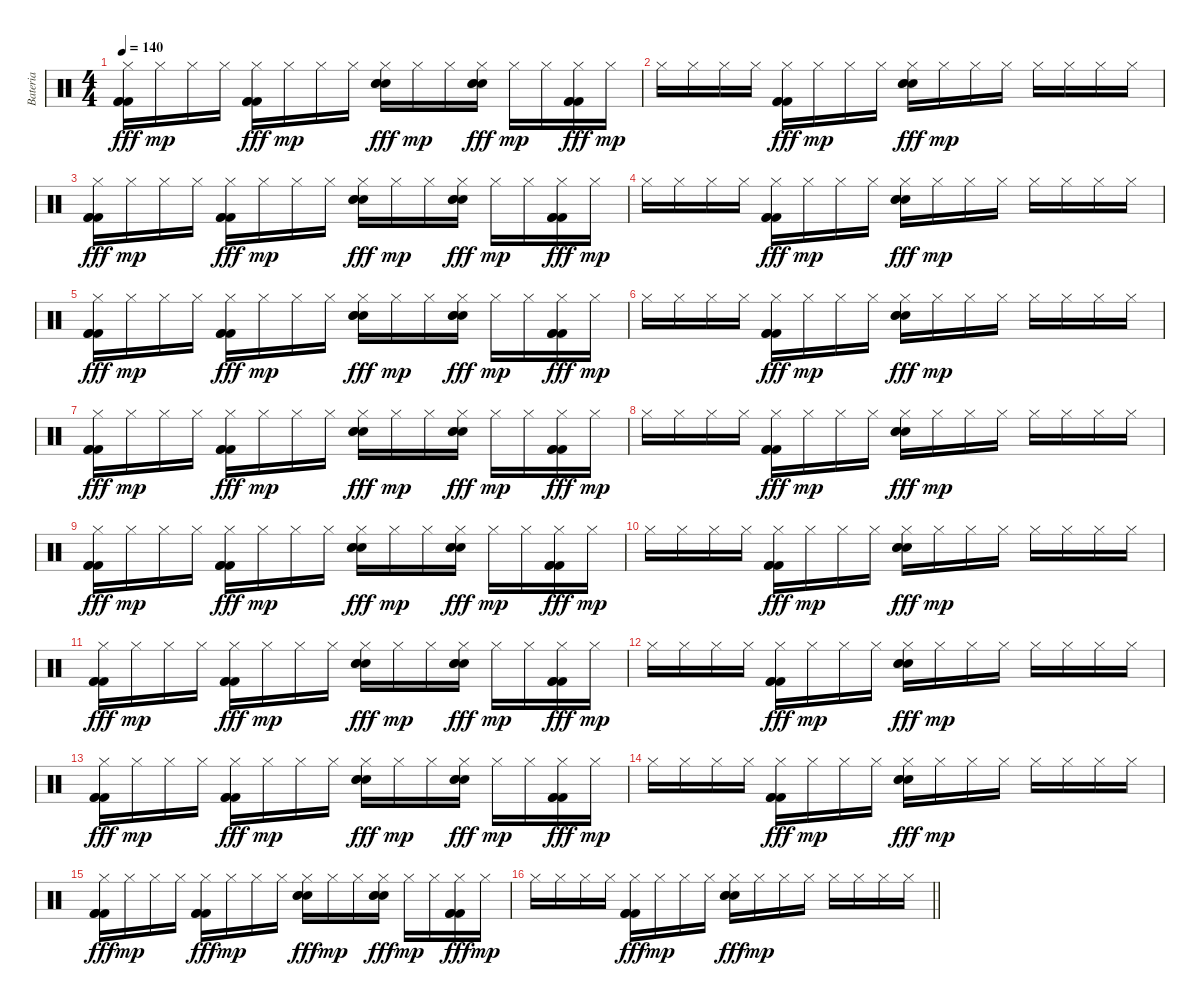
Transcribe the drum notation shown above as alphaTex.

\track ("Bateria" "Bateria") {instrument percussion}
\staff {score}
\articulation defaults
\ts (4 4)
\tempo 140
\clef neutral
\ks c
("Hi-Hat (closed)" "Kick (hit) 2" "Kick (hit) 2" "Kick (hit) 2").16{dy fff} "Hi-Hat (closed)".16{dy mp} "Hi-Hat (closed)".16 "Hi-Hat (closed)".16 ("Hi-Hat (closed)" "Kick (hit) 2" "Kick (hit) 2" "Kick (hit) 2").16{dy fff} "Hi-Hat (closed)".16{dy mp} "Hi-Hat (closed)".16 "Hi-Hat (closed)".16 ("Hi-Hat (closed)" "Snare (hit) 2" "Snare (hit) 2" "Snare (hit) 2").16{dy fff} "Hi-Hat (closed)".16{dy mp} "Hi-Hat (closed)".16 ("Hi-Hat (closed)" "Snare (hit) 2" "Snare (hit) 2" "Snare (hit) 2").16{dy fff} "Hi-Hat (closed)".16{dy mp} "Hi-Hat (closed)".16 ("Hi-Hat (closed)" "Kick (hit) 2" "Kick (hit) 2" "Kick (hit) 2").16{dy fff} "Hi-Hat (closed)".16{dy mp} |
"Hi-Hat (closed)".16 "Hi-Hat (closed)".16 "Hi-Hat (closed)".16 "Hi-Hat (closed)".16 ("Hi-Hat (closed)" "Kick (hit) 2" "Kick (hit) 2" "Kick (hit) 2").16{dy fff} "Hi-Hat (closed)".16{dy mp} "Hi-Hat (closed)".16 "Hi-Hat (closed)".16 ("Hi-Hat (closed)" "Snare (hit) 2" "Snare (hit) 2" "Snare (hit) 2").16{dy fff} "Hi-Hat (closed)".16{dy mp} "Hi-Hat (closed)".16 "Hi-Hat (closed)".16 "Hi-Hat (closed)".16 "Hi-Hat (closed)".16 "Hi-Hat (closed)".16 "Hi-Hat (closed)".16 |
("Hi-Hat (closed)" "Kick (hit) 2" "Kick (hit) 2" "Kick (hit) 2").16{dy fff} "Hi-Hat (closed)".16{dy mp} "Hi-Hat (closed)".16 "Hi-Hat (closed)".16 ("Hi-Hat (closed)" "Kick (hit) 2" "Kick (hit) 2" "Kick (hit) 2").16{dy fff} "Hi-Hat (closed)".16{dy mp} "Hi-Hat (closed)".16 "Hi-Hat (closed)".16 ("Hi-Hat (closed)" "Snare (hit) 2" "Snare (hit) 2" "Snare (hit) 2").16{dy fff} "Hi-Hat (closed)".16{dy mp} "Hi-Hat (closed)".16 ("Hi-Hat (closed)" "Snare (hit) 2" "Snare (hit) 2" "Snare (hit) 2").16{dy fff} "Hi-Hat (closed)".16{dy mp} "Hi-Hat (closed)".16 ("Hi-Hat (closed)" "Kick (hit) 2" "Kick (hit) 2" "Kick (hit) 2").16{dy fff} "Hi-Hat (closed)".16{dy mp} |
"Hi-Hat (closed)".16 "Hi-Hat (closed)".16 "Hi-Hat (closed)".16 "Hi-Hat (closed)".16 ("Hi-Hat (closed)" "Kick (hit) 2" "Kick (hit) 2" "Kick (hit) 2").16{dy fff} "Hi-Hat (closed)".16{dy mp} "Hi-Hat (closed)".16 "Hi-Hat (closed)".16 ("Hi-Hat (closed)" "Snare (hit) 2" "Snare (hit) 2" "Snare (hit) 2").16{dy fff} "Hi-Hat (closed)".16{dy mp} "Hi-Hat (closed)".16 "Hi-Hat (closed)".16 "Hi-Hat (closed)".16 "Hi-Hat (closed)".16 "Hi-Hat (closed)".16 "Hi-Hat (closed)".16 |
("Hi-Hat (closed)" "Kick (hit) 2" "Kick (hit) 2" "Kick (hit) 2").16{dy fff} "Hi-Hat (closed)".16{dy mp} "Hi-Hat (closed)".16 "Hi-Hat (closed)".16 ("Hi-Hat (closed)" "Kick (hit) 2" "Kick (hit) 2" "Kick (hit) 2").16{dy fff} "Hi-Hat (closed)".16{dy mp} "Hi-Hat (closed)".16 "Hi-Hat (closed)".16 ("Hi-Hat (closed)" "Snare (hit) 2" "Snare (hit) 2" "Snare (hit) 2").16{dy fff} "Hi-Hat (closed)".16{dy mp} "Hi-Hat (closed)".16 ("Hi-Hat (closed)" "Snare (hit) 2" "Snare (hit) 2" "Snare (hit) 2").16{dy fff} "Hi-Hat (closed)".16{dy mp} "Hi-Hat (closed)".16 ("Hi-Hat (closed)" "Kick (hit) 2" "Kick (hit) 2" "Kick (hit) 2").16{dy fff} "Hi-Hat (closed)".16{dy mp} |
"Hi-Hat (closed)".16 "Hi-Hat (closed)".16 "Hi-Hat (closed)".16 "Hi-Hat (closed)".16 ("Hi-Hat (closed)" "Kick (hit) 2" "Kick (hit) 2" "Kick (hit) 2").16{dy fff} "Hi-Hat (closed)".16{dy mp} "Hi-Hat (closed)".16 "Hi-Hat (closed)".16 ("Hi-Hat (closed)" "Snare (hit) 2" "Snare (hit) 2" "Snare (hit) 2").16{dy fff} "Hi-Hat (closed)".16{dy mp} "Hi-Hat (closed)".16 "Hi-Hat (closed)".16 "Hi-Hat (closed)".16 "Hi-Hat (closed)".16 "Hi-Hat (closed)".16 "Hi-Hat (closed)".16 |
("Hi-Hat (closed)" "Kick (hit) 2" "Kick (hit) 2" "Kick (hit) 2").16{dy fff} "Hi-Hat (closed)".16{dy mp} "Hi-Hat (closed)".16 "Hi-Hat (closed)".16 ("Hi-Hat (closed)" "Kick (hit) 2" "Kick (hit) 2" "Kick (hit) 2").16{dy fff} "Hi-Hat (closed)".16{dy mp} "Hi-Hat (closed)".16 "Hi-Hat (closed)".16 ("Hi-Hat (closed)" "Snare (hit) 2" "Snare (hit) 2" "Snare (hit) 2").16{dy fff} "Hi-Hat (closed)".16{dy mp} "Hi-Hat (closed)".16 ("Hi-Hat (closed)" "Snare (hit) 2" "Snare (hit) 2" "Snare (hit) 2").16{dy fff} "Hi-Hat (closed)".16{dy mp} "Hi-Hat (closed)".16 ("Hi-Hat (closed)" "Kick (hit) 2" "Kick (hit) 2" "Kick (hit) 2").16{dy fff} "Hi-Hat (closed)".16{dy mp} |
"Hi-Hat (closed)".16 "Hi-Hat (closed)".16 "Hi-Hat (closed)".16 "Hi-Hat (closed)".16 ("Hi-Hat (closed)" "Kick (hit) 2" "Kick (hit) 2" "Kick (hit) 2").16{dy fff} "Hi-Hat (closed)".16{dy mp} "Hi-Hat (closed)".16 "Hi-Hat (closed)".16 ("Hi-Hat (closed)" "Snare (hit) 2" "Snare (hit) 2" "Snare (hit) 2").16{dy fff} "Hi-Hat (closed)".16{dy mp} "Hi-Hat (closed)".16 "Hi-Hat (closed)".16 "Hi-Hat (closed)".16 "Hi-Hat (closed)".16 "Hi-Hat (closed)".16 "Hi-Hat (closed)".16 |
("Hi-Hat (closed)" "Kick (hit) 2" "Kick (hit) 2" "Kick (hit) 2").16{dy fff} "Hi-Hat (closed)".16{dy mp} "Hi-Hat (closed)".16 "Hi-Hat (closed)".16 ("Hi-Hat (closed)" "Kick (hit) 2" "Kick (hit) 2" "Kick (hit) 2").16{dy fff} "Hi-Hat (closed)".16{dy mp} "Hi-Hat (closed)".16 "Hi-Hat (closed)".16 ("Hi-Hat (closed)" "Snare (hit) 2" "Snare (hit) 2" "Snare (hit) 2").16{dy fff} "Hi-Hat (closed)".16{dy mp} "Hi-Hat (closed)".16 ("Hi-Hat (closed)" "Snare (hit) 2" "Snare (hit) 2" "Snare (hit) 2").16{dy fff} "Hi-Hat (closed)".16{dy mp} "Hi-Hat (closed)".16 ("Hi-Hat (closed)" "Kick (hit) 2" "Kick (hit) 2" "Kick (hit) 2").16{dy fff} "Hi-Hat (closed)".16{dy mp} |
"Hi-Hat (closed)".16 "Hi-Hat (closed)".16 "Hi-Hat (closed)".16 "Hi-Hat (closed)".16 ("Hi-Hat (closed)" "Kick (hit) 2" "Kick (hit) 2" "Kick (hit) 2").16{dy fff} "Hi-Hat (closed)".16{dy mp} "Hi-Hat (closed)".16 "Hi-Hat (closed)".16 ("Hi-Hat (closed)" "Snare (hit) 2" "Snare (hit) 2" "Snare (hit) 2").16{dy fff} "Hi-Hat (closed)".16{dy mp} "Hi-Hat (closed)".16 "Hi-Hat (closed)".16 "Hi-Hat (closed)".16 "Hi-Hat (closed)".16 "Hi-Hat (closed)".16 "Hi-Hat (closed)".16 |
("Hi-Hat (closed)" "Kick (hit) 2" "Kick (hit) 2" "Kick (hit) 2").16{dy fff} "Hi-Hat (closed)".16{dy mp} "Hi-Hat (closed)".16 "Hi-Hat (closed)".16 ("Hi-Hat (closed)" "Kick (hit) 2" "Kick (hit) 2" "Kick (hit) 2").16{dy fff} "Hi-Hat (closed)".16{dy mp} "Hi-Hat (closed)".16 "Hi-Hat (closed)".16 ("Hi-Hat (closed)" "Snare (hit) 2" "Snare (hit) 2" "Snare (hit) 2").16{dy fff} "Hi-Hat (closed)".16{dy mp} "Hi-Hat (closed)".16 ("Hi-Hat (closed)" "Snare (hit) 2" "Snare (hit) 2" "Snare (hit) 2").16{dy fff} "Hi-Hat (closed)".16{dy mp} "Hi-Hat (closed)".16 ("Hi-Hat (closed)" "Kick (hit) 2" "Kick (hit) 2" "Kick (hit) 2").16{dy fff} "Hi-Hat (closed)".16{dy mp} |
"Hi-Hat (closed)".16 "Hi-Hat (closed)".16 "Hi-Hat (closed)".16 "Hi-Hat (closed)".16 ("Hi-Hat (closed)" "Kick (hit) 2" "Kick (hit) 2" "Kick (hit) 2").16{dy fff} "Hi-Hat (closed)".16{dy mp} "Hi-Hat (closed)".16 "Hi-Hat (closed)".16 ("Hi-Hat (closed)" "Snare (hit) 2" "Snare (hit) 2" "Snare (hit) 2").16{dy fff} "Hi-Hat (closed)".16{dy mp} "Hi-Hat (closed)".16 "Hi-Hat (closed)".16 "Hi-Hat (closed)".16 "Hi-Hat (closed)".16 "Hi-Hat (closed)".16 "Hi-Hat (closed)".16 |
("Hi-Hat (closed)" "Kick (hit) 2" "Kick (hit) 2" "Kick (hit) 2").16{dy fff} "Hi-Hat (closed)".16{dy mp} "Hi-Hat (closed)".16 "Hi-Hat (closed)".16 ("Hi-Hat (closed)" "Kick (hit) 2" "Kick (hit) 2" "Kick (hit) 2").16{dy fff} "Hi-Hat (closed)".16{dy mp} "Hi-Hat (closed)".16 "Hi-Hat (closed)".16 ("Hi-Hat (closed)" "Snare (hit) 2" "Snare (hit) 2" "Snare (hit) 2").16{dy fff} "Hi-Hat (closed)".16{dy mp} "Hi-Hat (closed)".16 ("Hi-Hat (closed)" "Snare (hit) 2" "Snare (hit) 2" "Snare (hit) 2").16{dy fff} "Hi-Hat (closed)".16{dy mp} "Hi-Hat (closed)".16 ("Hi-Hat (closed)" "Kick (hit) 2" "Kick (hit) 2" "Kick (hit) 2").16{dy fff} "Hi-Hat (closed)".16{dy mp} |
"Hi-Hat (closed)".16 "Hi-Hat (closed)".16 "Hi-Hat (closed)".16 "Hi-Hat (closed)".16 ("Hi-Hat (closed)" "Kick (hit) 2" "Kick (hit) 2" "Kick (hit) 2").16{dy fff} "Hi-Hat (closed)".16{dy mp} "Hi-Hat (closed)".16 "Hi-Hat (closed)".16 ("Hi-Hat (closed)" "Snare (hit) 2" "Snare (hit) 2" "Snare (hit) 2").16{dy fff} "Hi-Hat (closed)".16{dy mp} "Hi-Hat (closed)".16 "Hi-Hat (closed)".16 "Hi-Hat (closed)".16 "Hi-Hat (closed)".16 "Hi-Hat (closed)".16 "Hi-Hat (closed)".16 |
("Hi-Hat (closed)" "Kick (hit) 2" "Kick (hit) 2" "Kick (hit) 2").16{dy fff} "Hi-Hat (closed)".16{dy mp} "Hi-Hat (closed)".16 "Hi-Hat (closed)".16 ("Hi-Hat (closed)" "Kick (hit) 2" "Kick (hit) 2" "Kick (hit) 2").16{dy fff} "Hi-Hat (closed)".16{dy mp} "Hi-Hat (closed)".16 "Hi-Hat (closed)".16 ("Hi-Hat (closed)" "Snare (hit) 2" "Snare (hit) 2" "Snare (hit) 2").16{dy fff} "Hi-Hat (closed)".16{dy mp} "Hi-Hat (closed)".16 ("Hi-Hat (closed)" "Snare (hit) 2" "Snare (hit) 2" "Snare (hit) 2").16{dy fff} "Hi-Hat (closed)".16{dy mp} "Hi-Hat (closed)".16 ("Hi-Hat (closed)" "Kick (hit) 2" "Kick (hit) 2" "Kick (hit) 2").16{dy fff} "Hi-Hat (closed)".16{dy mp} |
\barLineRight lightlight "Hi-Hat (closed)".16 "Hi-Hat (closed)".16 "Hi-Hat (closed)".16 "Hi-Hat (closed)".16
("Hi-Hat (closed)" "Kick (hit) 2" "Kick (hit) 2" "Kick (hit) 2").16{dy fff} "Hi-Hat (closed)".16{dy mp} "Hi-Hat (closed)".16 "Hi-Hat (closed)".16 ("Hi-Hat (closed)" "Snare (hit) 2" "Snare (hit) 2" "Snare (hit) 2").16{dy fff} "Hi-Hat (closed)".16{dy mp} "Hi-Hat (closed)".16 "Hi-Hat (closed)".16 "Hi-Hat (closed)".16 "Hi-Hat (closed)".16 "Hi-Hat (closed)".16 "Hi-Hat (closed)".16
